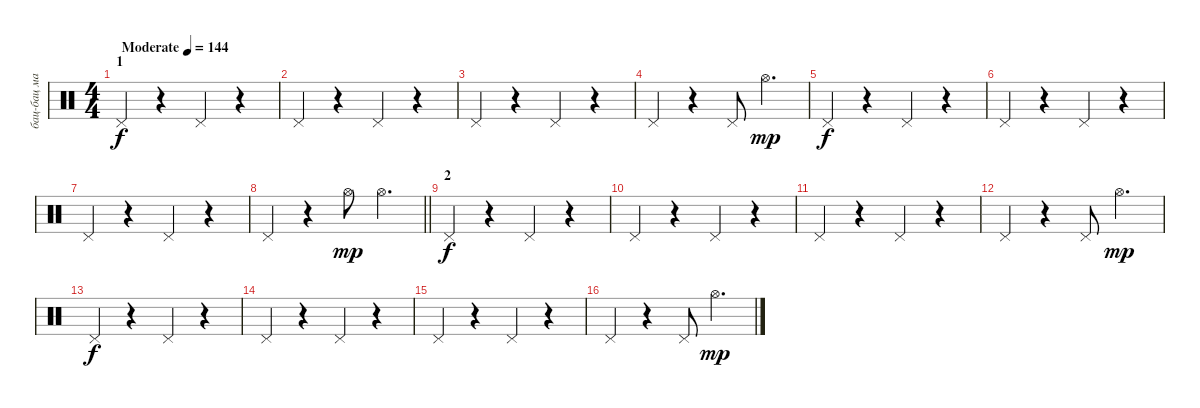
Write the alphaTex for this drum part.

\track ("бац-бац машина" "бац-бац ма") {instrument percussion}
\staff {score}
\articulation defaults
\ts (4 4)
\section ("" "1")
\tempo (144 "Moderate")
\clef neutral
\ks c "Pedal Hi-Hat (hit)".4{dy f}
r.4 "Pedal Hi-Hat (hit)".4 r.4 |
"Pedal Hi-Hat (hit)".4 r.4 "Pedal Hi-Hat (hit)".4 r.4 |
"Pedal Hi-Hat (hit)".4 r.4 "Pedal Hi-Hat (hit)".4 r.4 |
"Pedal Hi-Hat (hit)".4 r.4 "Pedal Hi-Hat (hit)".8 "Hi-Hat (open)".4{d dy mp} |
"Pedal Hi-Hat (hit)".4{dy f} r.4 "Pedal Hi-Hat (hit)".4 r.4 |
"Pedal Hi-Hat (hit)".4 r.4 "Pedal Hi-Hat (hit)".4 r.4 |
"Pedal Hi-Hat (hit)".4 r.4 "Pedal Hi-Hat (hit)".4 r.4 |
\barLineRight lightlight "Pedal Hi-Hat (hit)".4
r.4 "Hi-Hat (open)".8{dy mp} "Hi-Hat (open)".4{d} |
\section ("" "2")
"Pedal Hi-Hat (hit)".4{dy f} r.4 "Pedal Hi-Hat (hit)".4 r.4 |
"Pedal Hi-Hat (hit)".4 r.4 "Pedal Hi-Hat (hit)".4 r.4 |
"Pedal Hi-Hat (hit)".4 r.4 "Pedal Hi-Hat (hit)".4 r.4 |
"Pedal Hi-Hat (hit)".4 r.4 "Pedal Hi-Hat (hit)".8 "Hi-Hat (open)".4{d dy mp} |
"Pedal Hi-Hat (hit)".4{dy f} r.4 "Pedal Hi-Hat (hit)".4 r.4 |
"Pedal Hi-Hat (hit)".4 r.4 "Pedal Hi-Hat (hit)".4 r.4 |
"Pedal Hi-Hat (hit)".4 r.4 "Pedal Hi-Hat (hit)".4 r.4 |
"Pedal Hi-Hat (hit)".4 r.4 "Pedal Hi-Hat (hit)".8 "Hi-Hat (open)".4{d dy mp}
